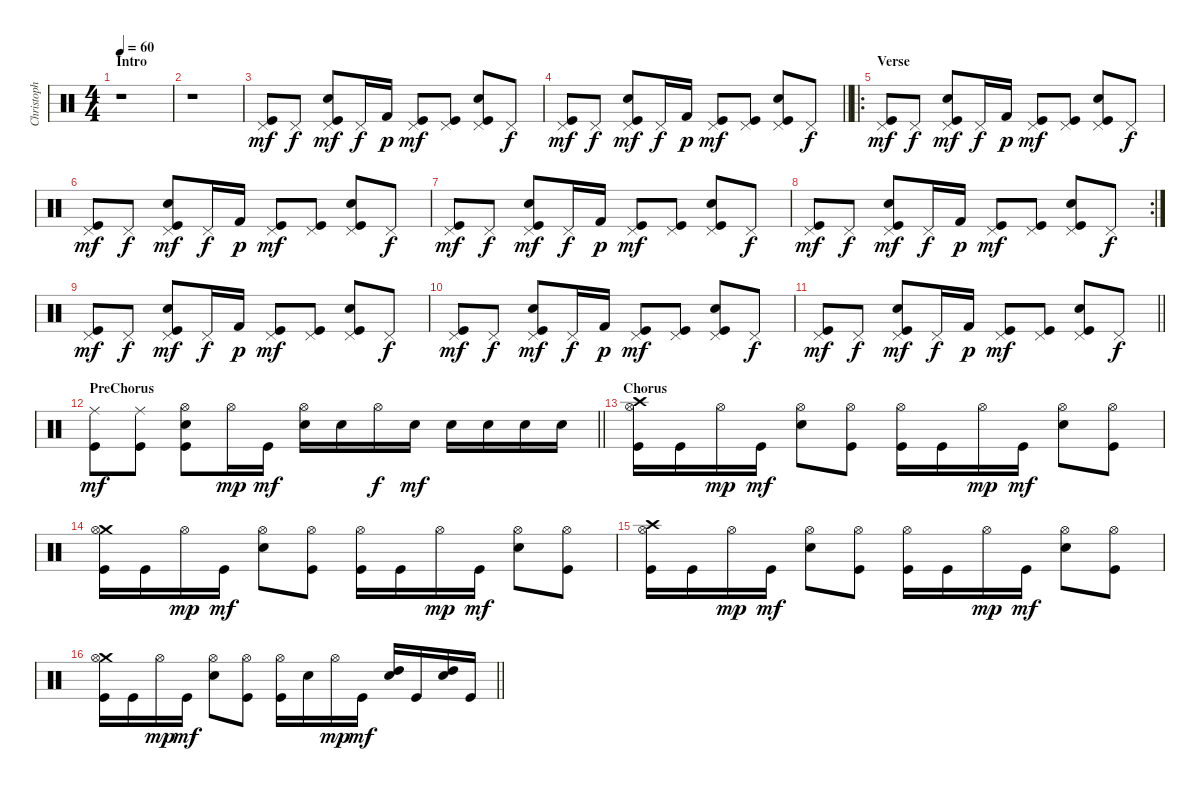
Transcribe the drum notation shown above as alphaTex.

\track ("Christoph Schneider" "Christoph ") {instrument percussion}
\staff {score}
\articulation defaults
\ts (4 4)
\section ("" "Intro")
\tempo 60
\clef neutral
\ks c
r.1{dy mf} |
r.1 |
("Pedal Hi-Hat (hit)" "Kick (hit)").8 "Pedal Hi-Hat (hit)".8{dy f} ("Pedal Hi-Hat (hit)" "Snare (hit) 2" "Kick (hit)").8{dy mf} "Pedal Hi-Hat (hit)".16{dy f} "Kick (hit) 2".16{dy p} ("Pedal Hi-Hat (hit)" "Kick (hit)").8{dy mf} ("Pedal Hi-Hat (hit)" "Kick (hit)").8 ("Pedal Hi-Hat (hit)" "Snare (hit) 2" "Kick (hit)").8 "Pedal Hi-Hat (hit)".8{dy f} |
\barLineRight lightlight
("Pedal Hi-Hat (hit)" "Kick (hit)").8{dy mf} "Pedal Hi-Hat (hit)".8{dy f} ("Pedal Hi-Hat (hit)" "Snare (hit) 2" "Kick (hit)").8{dy mf} "Pedal Hi-Hat (hit)".16{dy f} "Kick (hit) 2".16{dy p} ("Pedal Hi-Hat (hit)" "Kick (hit)").8{dy mf} ("Pedal Hi-Hat (hit)" "Kick (hit)").8 ("Pedal Hi-Hat (hit)" "Snare (hit) 2" "Kick (hit)").8 "Pedal Hi-Hat (hit)".8{dy f} |
\ro
\section ("" "Verse")
("Pedal Hi-Hat (hit)" "Kick (hit)").8{dy mf} "Pedal Hi-Hat (hit)".8{dy f} ("Pedal Hi-Hat (hit)" "Snare (hit) 2" "Kick (hit)").8{dy mf} "Pedal Hi-Hat (hit)".16{dy f} "Kick (hit) 2".16{dy p} ("Pedal Hi-Hat (hit)" "Kick (hit)").8{dy mf} ("Pedal Hi-Hat (hit)" "Kick (hit)").8 ("Pedal Hi-Hat (hit)" "Snare (hit) 2" "Kick (hit)").8 "Pedal Hi-Hat (hit)".8{dy f} |
("Pedal Hi-Hat (hit)" "Kick (hit)").8{dy mf} "Pedal Hi-Hat (hit)".8{dy f} ("Pedal Hi-Hat (hit)" "Snare (hit) 2" "Kick (hit)").8{dy mf} "Pedal Hi-Hat (hit)".16{dy f} "Kick (hit) 2".16{dy p} ("Pedal Hi-Hat (hit)" "Kick (hit)").8{dy mf} ("Pedal Hi-Hat (hit)" "Kick (hit)").8 ("Pedal Hi-Hat (hit)" "Snare (hit) 2" "Kick (hit)").8 "Pedal Hi-Hat (hit)".8{dy f} |
("Pedal Hi-Hat (hit)" "Kick (hit)").8{dy mf} "Pedal Hi-Hat (hit)".8{dy f} ("Pedal Hi-Hat (hit)" "Snare (hit) 2" "Kick (hit)").8{dy mf} "Pedal Hi-Hat (hit)".16{dy f} "Kick (hit) 2".16{dy p} ("Pedal Hi-Hat (hit)" "Kick (hit)").8{dy mf} ("Pedal Hi-Hat (hit)" "Kick (hit)").8 ("Pedal Hi-Hat (hit)" "Snare (hit) 2" "Kick (hit)").8 "Pedal Hi-Hat (hit)".8{dy f} |
\rc 2
("Pedal Hi-Hat (hit)" "Kick (hit)").8{dy mf} "Pedal Hi-Hat (hit)".8{dy f} ("Pedal Hi-Hat (hit)" "Snare (hit) 2" "Kick (hit)").8{dy mf} "Pedal Hi-Hat (hit)".16{dy f} "Kick (hit) 2".16{dy p} ("Pedal Hi-Hat (hit)" "Kick (hit)").8{dy mf} ("Pedal Hi-Hat (hit)" "Kick (hit)").8 ("Pedal Hi-Hat (hit)" "Snare (hit) 2" "Kick (hit)").8 "Pedal Hi-Hat (hit)".8{dy f} |
("Pedal Hi-Hat (hit)" "Kick (hit)").8{dy mf} "Pedal Hi-Hat (hit)".8{dy f} ("Pedal Hi-Hat (hit)" "Snare (hit) 2" "Kick (hit)").8{dy mf} "Pedal Hi-Hat (hit)".16{dy f} "Kick (hit) 2".16{dy p} ("Pedal Hi-Hat (hit)" "Kick (hit)").8{dy mf} ("Pedal Hi-Hat (hit)" "Kick (hit)").8 ("Pedal Hi-Hat (hit)" "Snare (hit) 2" "Kick (hit)").8 "Pedal Hi-Hat (hit)".8{dy f} |
("Pedal Hi-Hat (hit)" "Kick (hit)").8{dy mf} "Pedal Hi-Hat (hit)".8{dy f} ("Pedal Hi-Hat (hit)" "Snare (hit) 2" "Kick (hit)").8{dy mf} "Pedal Hi-Hat (hit)".16{dy f} "Kick (hit) 2".16{dy p} ("Pedal Hi-Hat (hit)" "Kick (hit)").8{dy mf} ("Pedal Hi-Hat (hit)" "Kick (hit)").8 ("Pedal Hi-Hat (hit)" "Snare (hit) 2" "Kick (hit)").8 "Pedal Hi-Hat (hit)".8{dy f} |
\barLineRight lightlight
("Pedal Hi-Hat (hit)" "Kick (hit)").8{dy mf} "Pedal Hi-Hat (hit)".8{dy f} ("Pedal Hi-Hat (hit)" "Snare (hit) 2" "Kick (hit)").8{dy mf} "Pedal Hi-Hat (hit)".16{dy f} "Kick (hit) 2".16{dy p} ("Pedal Hi-Hat (hit)" "Kick (hit)").8{dy mf} ("Pedal Hi-Hat (hit)" "Kick (hit)").8 ("Pedal Hi-Hat (hit)" "Snare (hit) 2" "Kick (hit)").8 "Pedal Hi-Hat (hit)".8{dy f} |
\section ("" "PreChorus")
\barLineRight lightlight
("Ride (middle)" "Kick (hit)").8{dy mf} ("Ride (middle)" "Kick (hit)").8 ("Hi-Hat (open)" "Snare (hit) 2" "Kick (hit)").8 "Hi-Hat (open)".16{dy mp} "Kick (hit)".16{dy mf} ("Hi-Hat (open)" "Snare (hit) 2").16 "Snare (hit) 2".16 "Hi-Hat (open)".16{dy f} "Snare (hit) 2".16{dy mf} "Snare (hit) 2".16 "Snare (hit) 2".16 "Snare (hit) 2".16 "Snare (hit) 2".16 |
\section ("" "Chorus")
("Crash high (hit)" "Hi-Hat (open)" "Kick (hit)").16 "Kick (hit)".16 "Hi-Hat (open)".16{dy mp} "Kick (hit)".16{dy mf} ("Hi-Hat (open)" "Snare (hit) 2").8 ("Hi-Hat (open)" "Kick (hit)").8 ("Hi-Hat (open)" "Kick (hit)").16 "Kick (hit)".16 "Hi-Hat (open)".16{dy mp} "Kick (hit)".16{dy mf} ("Hi-Hat (open)" "Snare (hit) 2").8 ("Hi-Hat (open)" "Kick (hit)").8 |
("Crash medium (hit)" "Hi-Hat (open)" "Kick (hit)").16 "Kick (hit)".16 "Hi-Hat (open)".16{dy mp} "Kick (hit)".16{dy mf} ("Hi-Hat (open)" "Snare (hit) 2").8 ("Hi-Hat (open)" "Kick (hit)").8 ("Hi-Hat (open)" "Kick (hit)").16 "Kick (hit)".16 "Hi-Hat (open)".16{dy mp} "Kick (hit)".16{dy mf} ("Hi-Hat (open)" "Snare (hit) 2").8 ("Hi-Hat (open)" "Kick (hit)").8 |
("Crash high (hit)" "Hi-Hat (open)" "Kick (hit)").16 "Kick (hit)".16 "Hi-Hat (open)".16{dy mp} "Kick (hit)".16{dy mf} ("Hi-Hat (open)" "Snare (hit) 2").8 ("Hi-Hat (open)" "Kick (hit)").8 ("Hi-Hat (open)" "Kick (hit)").16 "Kick (hit)".16 "Hi-Hat (open)".16{dy mp} "Kick (hit)".16{dy mf} ("Hi-Hat (open)" "Snare (hit) 2").8 ("Hi-Hat (open)" "Kick (hit)").8 |
\barLineRight lightlight
("Crash medium (hit)" "Hi-Hat (open)" "Kick (hit)").16 "Kick (hit)".16 "Hi-Hat (open)".16{dy mp} "Kick (hit)".16{dy mf} ("Hi-Hat (open)" "Snare (hit) 2").8 ("Hi-Hat (open)" "Kick (hit)").8 ("Hi-Hat (open)" "Kick (hit)").16 "Snare (hit) 2".16 "Hi-Hat (open)".16{dy mp} "Kick (hit)".16{dy mf} ("Snare (hit) 2" "High Tom (hit)").16{bd 60} "Kick (hit)".16 ("Snare (hit) 2" "High Tom (hit)").16{bd 60} "Kick (hit)".16
